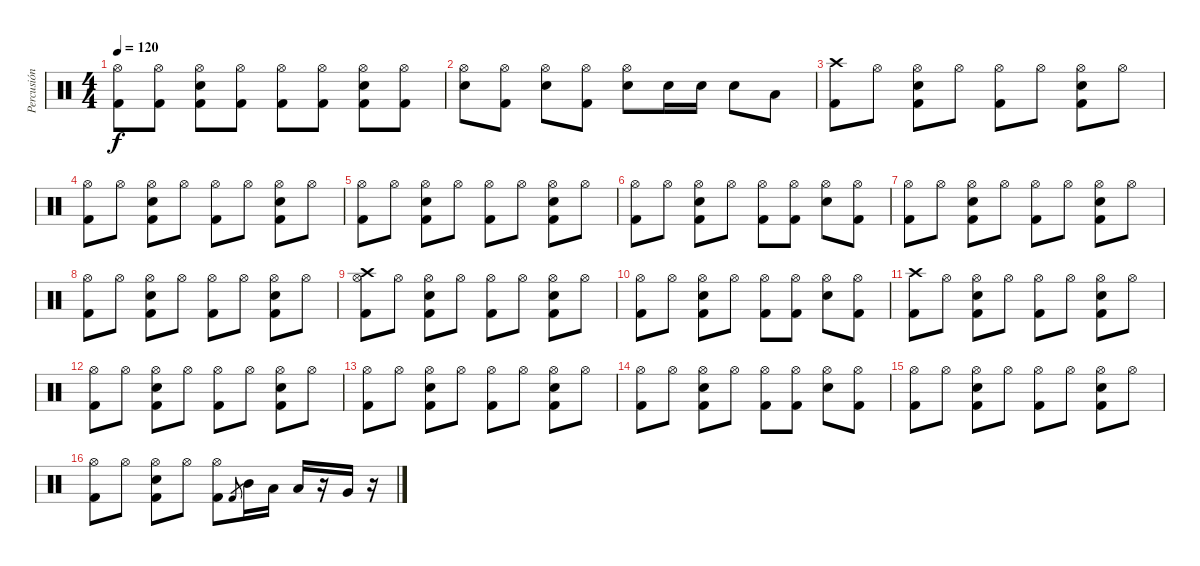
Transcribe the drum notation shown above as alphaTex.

\track ("Percusión" "Percusión") {instrument percussion}
\staff {score}
\articulation defaults
\ts (4 4)
\tempo 120
\clef neutral
\ks c
("Hi-Hat (open)" "Kick (hit) 2").8{dy f} ("Hi-Hat (open)" "Kick (hit) 2").8 ("Hi-Hat (open)" "Kick (hit) 2" "Electric Snare (hit)").8 ("Hi-Hat (open)" "Kick (hit) 2").8 ("Hi-Hat (open)" "Kick (hit) 2").8 ("Hi-Hat (open)" "Kick (hit) 2").8 ("Hi-Hat (open)" "Kick (hit) 2" "Electric Snare (hit)").8 ("Hi-Hat (open)" "Kick (hit) 2").8 |
("Hi-Hat (open)" "Electric Snare (hit)").8 ("Hi-Hat (open)" "Kick (hit) 2").8 ("Hi-Hat (open)" "Electric Snare (hit)").8 ("Hi-Hat (open)" "Kick (hit) 2").8 ("Hi-Hat (open)" "Electric Snare (hit)").8 "Electric Snare (hit)".16 "Electric Snare (hit)".16 "Electric Snare (hit)".8 "Low Floor Tom (hit)".8 |
("Crash high (hit)" "Kick (hit) 2").8 "Hi-Hat (open)".8 ("Kick (hit) 2" "Electric Snare (hit)" "Hi-Hat (open)").8 "Hi-Hat (open)".8 ("Kick (hit) 2" "Hi-Hat (open)").8 "Hi-Hat (open)".8 ("Kick (hit) 2" "Electric Snare (hit)" "Hi-Hat (open)").8 "Hi-Hat (open)".8 |
("Hi-Hat (open)" "Kick (hit) 2").8 "Hi-Hat (open)".8 ("Kick (hit) 2" "Electric Snare (hit)" "Hi-Hat (open)").8 "Hi-Hat (open)".8 ("Kick (hit) 2" "Hi-Hat (open)").8 "Hi-Hat (open)".8 ("Kick (hit) 2" "Electric Snare (hit)" "Hi-Hat (open)").8 "Hi-Hat (open)".8 |
("Hi-Hat (open)" "Kick (hit) 2").8 "Hi-Hat (open)".8 ("Kick (hit) 2" "Electric Snare (hit)" "Hi-Hat (open)").8 "Hi-Hat (open)".8 ("Kick (hit) 2" "Hi-Hat (open)").8 "Hi-Hat (open)".8 ("Kick (hit) 2" "Electric Snare (hit)" "Hi-Hat (open)").8 "Hi-Hat (open)".8 |
("Hi-Hat (open)" "Kick (hit) 2").8 "Hi-Hat (open)".8 ("Kick (hit) 2" "Electric Snare (hit)" "Hi-Hat (open)").8 "Hi-Hat (open)".8 ("Kick (hit) 2" "Hi-Hat (open)").8 ("Kick (hit) 2" "Hi-Hat (open)").8 ("Electric Snare (hit)" "Hi-Hat (open)").8 ("Kick (hit) 2" "Hi-Hat (open)").8 |
("Hi-Hat (open)" "Kick (hit) 2").8 "Hi-Hat (open)".8 ("Kick (hit) 2" "Electric Snare (hit)" "Hi-Hat (open)").8 "Hi-Hat (open)".8 ("Kick (hit) 2" "Hi-Hat (open)").8 "Hi-Hat (open)".8 ("Kick (hit) 2" "Electric Snare (hit)" "Hi-Hat (open)").8 "Hi-Hat (open)".8 |
("Hi-Hat (open)" "Kick (hit) 2").8 "Hi-Hat (open)".8 ("Kick (hit) 2" "Electric Snare (hit)" "Hi-Hat (open)").8 "Hi-Hat (open)".8 ("Kick (hit) 2" "Hi-Hat (open)").8 "Hi-Hat (open)".8 ("Kick (hit) 2" "Electric Snare (hit)" "Hi-Hat (open)").8 "Hi-Hat (open)".8 |
("Hi-Hat (open)" "Crash high (hit)" "Kick (hit) 2").8 "Hi-Hat (open)".8 ("Kick (hit) 2" "Electric Snare (hit)" "Hi-Hat (open)").8 "Hi-Hat (open)".8 ("Kick (hit) 2" "Hi-Hat (open)").8 "Hi-Hat (open)".8 ("Kick (hit) 2" "Electric Snare (hit)" "Hi-Hat (open)").8 "Hi-Hat (open)".8 |
("Hi-Hat (open)" "Kick (hit) 2").8 "Hi-Hat (open)".8 ("Kick (hit) 2" "Electric Snare (hit)" "Hi-Hat (open)").8 "Hi-Hat (open)".8 ("Kick (hit) 2" "Hi-Hat (open)").8 ("Kick (hit) 2" "Hi-Hat (open)").8 ("Electric Snare (hit)" "Hi-Hat (open)").8 ("Kick (hit) 2" "Hi-Hat (open)").8 |
("Crash high (hit)" "Kick (hit) 2").8 "Hi-Hat (open)".8 ("Kick (hit) 2" "Electric Snare (hit)" "Hi-Hat (open)").8 "Hi-Hat (open)".8 ("Kick (hit) 2" "Hi-Hat (open)").8 "Hi-Hat (open)".8 ("Kick (hit) 2" "Electric Snare (hit)" "Hi-Hat (open)").8 "Hi-Hat (open)".8 |
("Hi-Hat (open)" "Kick (hit) 2").8 "Hi-Hat (open)".8 ("Kick (hit) 2" "Electric Snare (hit)" "Hi-Hat (open)").8 "Hi-Hat (open)".8 ("Kick (hit) 2" "Hi-Hat (open)").8 "Hi-Hat (open)".8 ("Kick (hit) 2" "Electric Snare (hit)" "Hi-Hat (open)").8 "Hi-Hat (open)".8 |
("Hi-Hat (open)" "Kick (hit) 2").8 "Hi-Hat (open)".8 ("Kick (hit) 2" "Electric Snare (hit)" "Hi-Hat (open)").8 "Hi-Hat (open)".8 ("Kick (hit) 2" "Hi-Hat (open)").8 "Hi-Hat (open)".8 ("Kick (hit) 2" "Electric Snare (hit)" "Hi-Hat (open)").8 "Hi-Hat (open)".8 |
("Hi-Hat (open)" "Kick (hit) 2").8 "Hi-Hat (open)".8 ("Kick (hit) 2" "Electric Snare (hit)" "Hi-Hat (open)").8 "Hi-Hat (open)".8 ("Kick (hit) 2" "Hi-Hat (open)").8 ("Kick (hit) 2" "Hi-Hat (open)").8 ("Electric Snare (hit)" "Hi-Hat (open)").8 ("Kick (hit) 2" "Hi-Hat (open)").8 |
("Hi-Hat (open)" "Kick (hit) 2").8 "Hi-Hat (open)".8 ("Kick (hit) 2" "Electric Snare (hit)" "Hi-Hat (open)").8 "Hi-Hat (open)".8 ("Kick (hit) 2" "Hi-Hat (open)").8 "Hi-Hat (open)".8 ("Kick (hit) 2" "Electric Snare (hit)" "Hi-Hat (open)").8 "Hi-Hat (open)".8 |
("Hi-Hat (open)" "Kick (hit) 2").8 "Hi-Hat (open)".8 ("Kick (hit) 2" "Electric Snare (hit)" "Hi-Hat (open)").8 "Hi-Hat (open)".8 ("Kick (hit) 2" "Hi-Hat (open)").8 "Kick (hit) 2".8{gr} "Mid Tom (hit)".16 "Low Tom (hit)".16 "Low Tom (hit)".16 r.16 "Very Low Tom (hit)".16 r.16
